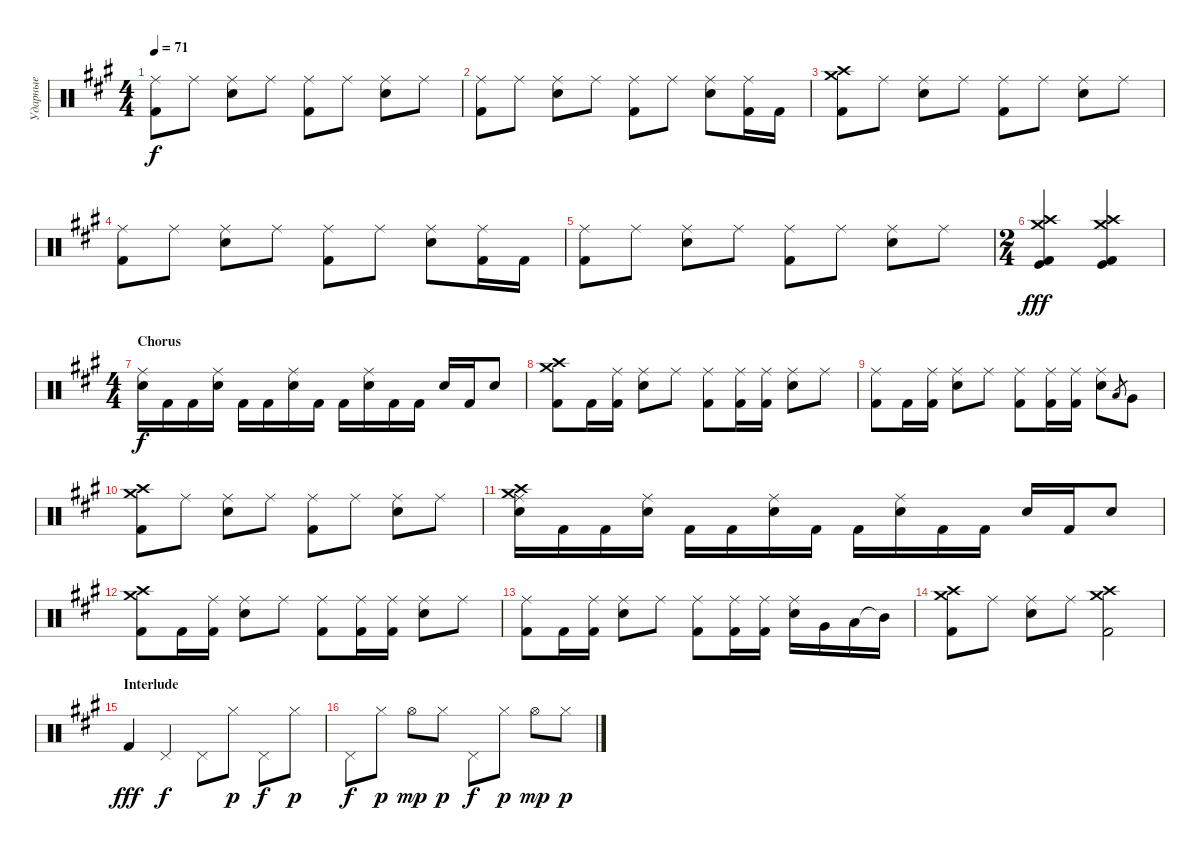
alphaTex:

\track ("Ударные" "Ударные") {instrument percussion}
\staff {score}
\articulation defaults
\ts (4 4)
\tempo 71
\clef neutral
\ks f#minor
("Ride (middle)" "Kick (hit) 2").8{dy f} "Ride (middle)".8 ("Ride (middle)" "Electric Snare (hit)").8 "Ride (middle)".8 ("Ride (middle)" "Kick (hit) 2").8 "Ride (middle)".8 ("Ride (middle)" "Electric Snare (hit)").8 "Ride (middle)".8 |
("Ride (middle)" "Kick (hit) 2").8 "Ride (middle)".8 ("Ride (middle)" "Electric Snare (hit)").8 "Ride (middle)".8 ("Ride (middle)" "Kick (hit) 2").8 "Ride (middle)".8 ("Ride (middle)" "Electric Snare (hit)").8 ("Ride (middle)" "Kick (hit) 2").16 "Kick (hit) 2".16 |
("Crash high (hit)" "Kick (hit) 2" "Crash medium (hit)").8 "Ride (middle)".8 ("Ride (middle)" "Electric Snare (hit)").8 "Ride (middle)".8 ("Ride (middle)" "Kick (hit) 2").8 "Ride (middle)".8 ("Ride (middle)" "Electric Snare (hit)").8 "Ride (middle)".8 |
("Ride (middle)" "Kick (hit) 2").8 "Ride (middle)".8 ("Ride (middle)" "Electric Snare (hit)").8 "Ride (middle)".8 ("Ride (middle)" "Kick (hit) 2").8 "Ride (middle)".8 ("Ride (middle)" "Electric Snare (hit)").8 ("Ride (middle)" "Kick (hit) 2").16 "Kick (hit) 2".16 |
("Ride (middle)" "Kick (hit) 2").8 "Ride (middle)".8 ("Ride (middle)" "Electric Snare (hit)").8 "Ride (middle)".8 ("Ride (middle)" "Kick (hit) 2").8 "Ride (middle)".8 ("Ride (middle)" "Electric Snare (hit)").8 "Ride (middle)".8 |
\ts (2 4)
("Crash high (hit)" "Crash medium (hit)" "Kick (hit) 2" "Kick (hit)").4{dy fff} ("Crash high (hit)" "Crash medium (hit)" "Kick (hit) 2" "Kick (hit)").4 |
\ts (4 4)
\section ("" "Chorus")
("Ride (middle)" "Electric Snare (hit)").16{dy f} "Kick (hit) 2".16 "Kick (hit) 2".16 ("Ride (middle)" "Electric Snare (hit)").16 "Kick (hit) 2".16 "Kick (hit) 2".16 ("Ride (middle)" "Electric Snare (hit)").16 "Kick (hit) 2".16 "Kick (hit) 2".16 ("Ride (middle)" "Electric Snare (hit)").16 "Kick (hit) 2".16 "Kick (hit) 2".16 "Electric Snare (hit)".16 "Kick (hit) 2".16 "Electric Snare (hit)".8 |
("Crash high (hit)" "Kick (hit) 2" "Crash medium (hit)").8 "Kick (hit) 2".16 ("Ride (middle)" "Kick (hit) 2").16 ("Ride (middle)" "Electric Snare (hit)").8 "Ride (middle)".8 ("Ride (middle)" "Kick (hit) 2").8 ("Ride (middle)" "Kick (hit) 2").16 ("Ride (middle)" "Kick (hit) 2").16 ("Ride (middle)" "Electric Snare (hit)").8 "Ride (middle)".8 |
("Ride (middle)" "Kick (hit) 2").8 "Kick (hit) 2".16 ("Ride (middle)" "Kick (hit) 2").16 ("Ride (middle)" "Electric Snare (hit)").8 "Ride (middle)".8 ("Ride (middle)" "Kick (hit) 2").8 ("Ride (middle)" "Kick (hit) 2").16 ("Ride (middle)" "Kick (hit) 2").16 ("Ride (middle)" "Electric Snare (hit)").8 "Low Floor Tom (hit)".8{gr} "Very Low Tom (hit)".8 |
("Crash high (hit)" "Kick (hit) 2" "Crash medium (hit)").8 "Ride (middle)".8 ("Ride (middle)" "Electric Snare (hit)").8 "Ride (middle)".8 ("Ride (middle)" "Kick (hit) 2").8 "Ride (middle)".8 ("Ride (middle)" "Electric Snare (hit)").8 "Ride (middle)".8 |
("Ride (middle)" "Crash high (hit)" "Electric Snare (hit)" "Crash medium (hit)").16 "Kick (hit) 2".16 "Kick (hit) 2".16 ("Ride (middle)" "Electric Snare (hit)").16 "Kick (hit) 2".16 "Kick (hit) 2".16 ("Ride (middle)" "Electric Snare (hit)").16 "Kick (hit) 2".16 "Kick (hit) 2".16 ("Ride (middle)" "Electric Snare (hit)").16 "Kick (hit) 2".16 "Kick (hit) 2".16 "Electric Snare (hit)".16 "Kick (hit) 2".16 "Electric Snare (hit)".8 |
("Crash high (hit)" "Kick (hit) 2" "Crash medium (hit)").8 "Kick (hit) 2".16 ("Ride (middle)" "Kick (hit) 2").16 ("Ride (middle)" "Electric Snare (hit)").8 "Ride (middle)".8 ("Ride (middle)" "Kick (hit) 2").8 ("Ride (middle)" "Kick (hit) 2").16 ("Ride (middle)" "Kick (hit) 2").16 ("Ride (middle)" "Electric Snare (hit)").8 "Ride (middle)".8 |
("Ride (middle)" "Kick (hit) 2").8 "Kick (hit) 2".16 ("Ride (middle)" "Kick (hit) 2").16 ("Ride (middle)" "Electric Snare (hit)").8 "Ride (middle)".8 ("Ride (middle)" "Kick (hit) 2").8 ("Ride (middle)" "Kick (hit) 2").16 ("Ride (middle)" "Kick (hit) 2").16 ("Ride (middle)" "Electric Snare (hit)").16 "Very Low Tom (hit)".16 "Low Tom (hit)".16 "Mid Tom (hit)"{t}.16 |
("Crash high (hit)" "Kick (hit) 2" "Crash medium (hit)").8 "Ride (middle)".8 ("Ride (middle)" "Electric Snare (hit)").8 "Ride (middle)".8 ("Crash high (hit)" "Crash medium (hit)" "Kick (hit) 2").2 |
\section ("" "Interlude")
"Kick (hit) 2".4{dy fff} "Pedal Hi-Hat (hit)".4{dy f} "Pedal Hi-Hat (hit)".8 "Hi-Hat (closed)".8{dy p} "Pedal Hi-Hat (hit)".8{dy f} "Hi-Hat (closed)".8{dy p} |
"Pedal Hi-Hat (hit)".8{dy f} "Hi-Hat (closed)".8{dy p} "Hi-Hat (open)".8{dy mp} "Hi-Hat (closed)".8{dy p} "Pedal Hi-Hat (hit)".8{dy f} "Hi-Hat (closed)".8{dy p} "Hi-Hat (open)".8{dy mp} "Hi-Hat (closed)".8{dy p}
